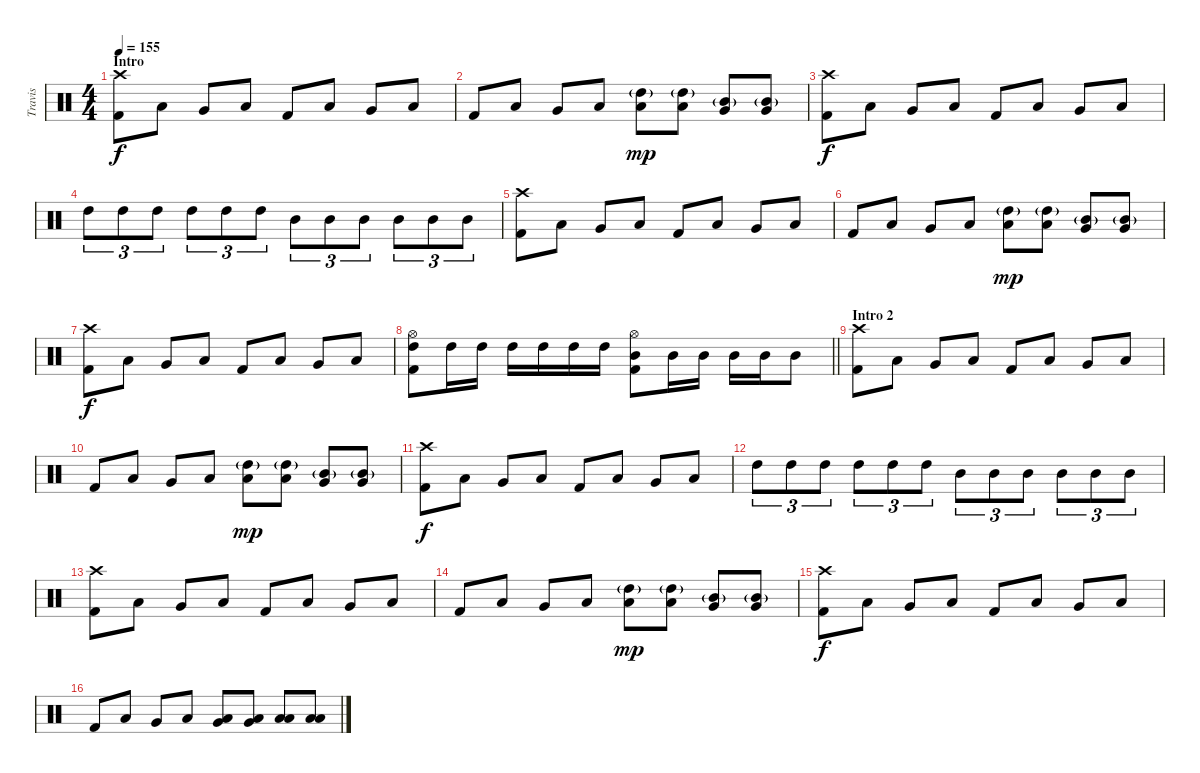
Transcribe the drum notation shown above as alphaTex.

\track ("Travis" "Travis") {instrument percussion}
\staff {score}
\articulation defaults
\ts (4 4)
\section ("" "Intro")
\tempo 155
\clef neutral
\ks c
("Crash high (hit)" "Kick (hit) 2").8{dy f} "Low Tom (hit)".8 "Very Low Tom (hit)".8 "Low Floor Tom (hit)".8 "Kick (hit) 2".8 "Low Tom (hit)".8 "Very Low Tom (hit)".8 "Low Floor Tom (hit)".8 |
"Kick (hit) 2".8 "Low Tom (hit)".8 "Very Low Tom (hit)".8 "Low Floor Tom (hit)".8 ("High Tom (hit)"{g} "Low Tom (hit)").8{dy mp} ("High Tom (hit)"{g} "Low Tom (hit)").8 ("Mid Tom (hit)"{g} "Very Low Tom (hit)").8 ("Mid Tom (hit)"{g} "Very Low Tom (hit)").8 |
("Crash high (hit)" "Kick (hit) 2").8{dy f} "Low Tom (hit)".8 "Very Low Tom (hit)".8 "Low Floor Tom (hit)".8 "Kick (hit) 2".8 "Low Tom (hit)".8 "Very Low Tom (hit)".8 "Low Floor Tom (hit)".8 |
"High Tom (hit)".8{tu (3 2)} "High Tom (hit)".8{tu (3 2)} "High Tom (hit)".8{tu (3 2)} "High Tom (hit)".8{tu (3 2)} "High Tom (hit)".8{tu (3 2)} "High Tom (hit)".8{tu (3 2)} "Mid Tom (hit)".8{tu (3 2)} "Mid Tom (hit)".8{tu (3 2)} "Mid Tom (hit)".8{tu (3 2)} "Mid Tom (hit)".8{tu (3 2)} "Mid Tom (hit)".8{tu (3 2)} "Mid Tom (hit)".8{tu (3 2)} |
("Crash high (hit)" "Kick (hit) 2").8 "Low Tom (hit)".8 "Very Low Tom (hit)".8 "Low Floor Tom (hit)".8 "Kick (hit) 2".8 "Low Tom (hit)".8 "Very Low Tom (hit)".8 "Low Floor Tom (hit)".8 |
"Kick (hit) 2".8 "Low Tom (hit)".8 "Very Low Tom (hit)".8 "Low Floor Tom (hit)".8 ("High Tom (hit)"{g} "Low Tom (hit)").8{dy mp} ("High Tom (hit)"{g} "Low Tom (hit)").8 ("Mid Tom (hit)"{g} "Very Low Tom (hit)").8 ("Mid Tom (hit)"{g} "Very Low Tom (hit)").8 |
("Crash high (hit)" "Kick (hit) 2").8{dy f} "Low Tom (hit)".8 "Very Low Tom (hit)".8 "Low Floor Tom (hit)".8 "Kick (hit) 2".8 "Low Tom (hit)".8 "Very Low Tom (hit)".8 "Low Floor Tom (hit)".8 |
\barLineRight lightlight
("Hi-Hat (open)" "High Tom (hit)" "Kick (hit) 2").8 "High Tom (hit)".16 "High Tom (hit)".16 "High Tom (hit)".16 "High Tom (hit)".16 "High Tom (hit)".16 "High Tom (hit)".16 ("Hi-Hat (open)" "Mid Tom (hit)" "Kick (hit) 2").8 "Mid Tom (hit)".16 "Mid Tom (hit)".16 "Mid Tom (hit)".16 "Mid Tom (hit)".16 "Mid Tom (hit)".8 |
\section ("" "Intro 2")
("Crash high (hit)" "Kick (hit) 2").8 "Low Tom (hit)".8 "Very Low Tom (hit)".8 "Low Floor Tom (hit)".8 "Kick (hit) 2".8 "Low Tom (hit)".8 "Very Low Tom (hit)".8 "Low Floor Tom (hit)".8 |
"Kick (hit) 2".8 "Low Tom (hit)".8 "Very Low Tom (hit)".8 "Low Floor Tom (hit)".8 ("High Tom (hit)"{g} "Low Tom (hit)").8{dy mp} ("High Tom (hit)"{g} "Low Tom (hit)").8 ("Mid Tom (hit)"{g} "Very Low Tom (hit)").8 ("Mid Tom (hit)"{g} "Very Low Tom (hit)").8 |
("Crash high (hit)" "Kick (hit) 2").8{dy f} "Low Tom (hit)".8 "Very Low Tom (hit)".8 "Low Floor Tom (hit)".8 "Kick (hit) 2".8 "Low Tom (hit)".8 "Very Low Tom (hit)".8 "Low Floor Tom (hit)".8 |
"High Tom (hit)".8{tu (3 2)} "High Tom (hit)".8{tu (3 2)} "High Tom (hit)".8{tu (3 2)} "High Tom (hit)".8{tu (3 2)} "High Tom (hit)".8{tu (3 2)} "High Tom (hit)".8{tu (3 2)} "Mid Tom (hit)".8{tu (3 2)} "Mid Tom (hit)".8{tu (3 2)} "Mid Tom (hit)".8{tu (3 2)} "Mid Tom (hit)".8{tu (3 2)} "Mid Tom (hit)".8{tu (3 2)} "Mid Tom (hit)".8{tu (3 2)} |
("Crash high (hit)" "Kick (hit) 2").8 "Low Tom (hit)".8 "Very Low Tom (hit)".8 "Low Floor Tom (hit)".8 "Kick (hit) 2".8 "Low Tom (hit)".8 "Very Low Tom (hit)".8 "Low Floor Tom (hit)".8 |
"Kick (hit) 2".8 "Low Tom (hit)".8 "Very Low Tom (hit)".8 "Low Floor Tom (hit)".8 ("High Tom (hit)"{g} "Low Tom (hit)").8{dy mp} ("High Tom (hit)"{g} "Low Tom (hit)").8 ("Mid Tom (hit)"{g} "Very Low Tom (hit)").8 ("Mid Tom (hit)"{g} "Very Low Tom (hit)").8 |
("Crash high (hit)" "Kick (hit) 2").8{dy f} "Low Tom (hit)".8 "Very Low Tom (hit)".8 "Low Floor Tom (hit)".8 "Kick (hit) 2".8 "Low Tom (hit)".8 "Very Low Tom (hit)".8 "Low Floor Tom (hit)".8 |
"Kick (hit) 2".8 "Low Tom (hit)".8 "Very Low Tom (hit)".8 "Low Floor Tom (hit)".8 ("Very Low Tom (hit)" "Low Tom (hit)").8 ("Very Low Tom (hit)" "Low Tom (hit)").8 ("Low Floor Tom (hit)" "Low Tom (hit)").8 ("Low Floor Tom (hit)" "Low Tom (hit)").8
